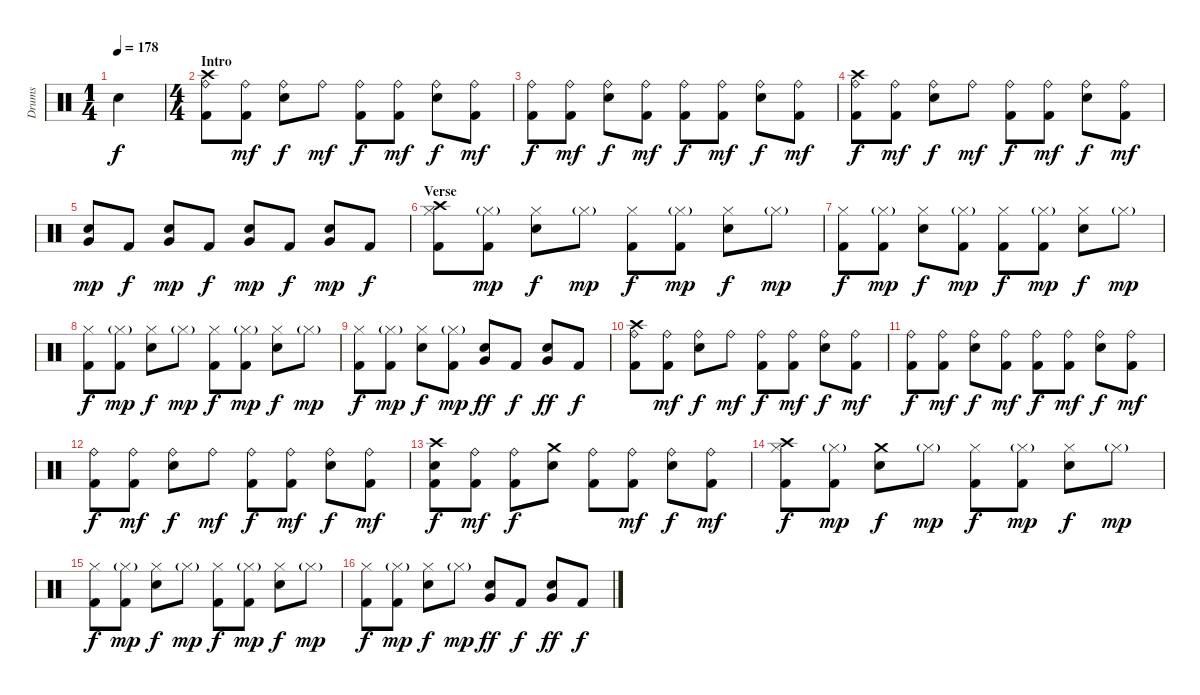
\track ("Drums" "Drums") {instrument percussion}
\staff {score}
\articulation defaults
\ts (1 4)
\tempo 178
\clef neutral
\ks c "Electric Snare (hit)".4{dy f}
|
\ts (4 4)
\section ("" "Intro")
("Crash high (hit)" "Ride (bell)" "Kick (hit) 2").8 ("Ride (bell)" "Kick (hit) 2").8{dy mf} ("Ride (bell)" "Electric Snare (hit)").8{dy f} "Ride (bell)".8{dy mf} ("Ride (bell)" "Kick (hit) 2").8{dy f} ("Ride (bell)" "Kick (hit) 2").8{dy mf} ("Ride (bell)" "Electric Snare (hit)").8{dy f} ("Ride (bell)" "Kick (hit) 2").8{dy mf} |
("Ride (bell)" "Kick (hit) 2").8{dy f} ("Ride (bell)" "Kick (hit) 2").8{dy mf} ("Ride (bell)" "Electric Snare (hit)").8{dy f} ("Ride (bell)" "Kick (hit) 2").8{dy mf} ("Ride (bell)" "Kick (hit) 2").8{dy f} ("Ride (bell)" "Kick (hit) 2").8{dy mf} ("Ride (bell)" "Electric Snare (hit)").8{dy f} ("Ride (bell)" "Kick (hit) 2").8{dy mf} |
("Crash high (hit)" "Ride (bell)" "Kick (hit) 2").8{dy f} ("Ride (bell)" "Kick (hit) 2").8{dy mf} ("Ride (bell)" "Electric Snare (hit)").8{dy f} "Ride (bell)".8{dy mf} ("Ride (bell)" "Kick (hit) 2").8{dy f} ("Ride (bell)" "Kick (hit) 2").8{dy mf} ("Ride (bell)" "Electric Snare (hit)").8{dy f} ("Ride (bell)" "Kick (hit) 2").8{dy mf} |
("Very Low Tom (hit)" "Electric Snare (hit)").8{dy mp} "Kick (hit) 2".8{dy f} ("Very Low Tom (hit)" "Electric Snare (hit)").8{dy mp} "Kick (hit) 2".8{dy f} ("Very Low Tom (hit)" "Electric Snare (hit)").8{dy mp} "Kick (hit) 2".8{dy f} ("Very Low Tom (hit)" "Electric Snare (hit)").8{dy mp} "Kick (hit) 2".8{dy f} |
\section ("" "Verse")
("Crash high (hit)" "Hi-Hat (closed)" "Kick (hit) 2").8 ("Hi-Hat (closed)"{g} "Kick (hit) 2").8{dy mp} ("Hi-Hat (closed)" "Electric Snare (hit)").8{dy f} "Hi-Hat (closed)"{g}.8{dy mp} ("Hi-Hat (closed)" "Kick (hit) 2").8{dy f} ("Hi-Hat (closed)"{g} "Kick (hit) 2").8{dy mp} ("Hi-Hat (closed)" "Electric Snare (hit)").8{dy f} "Hi-Hat (closed)"{g}.8{dy mp} |
("Hi-Hat (closed)" "Kick (hit) 2").8{dy f} ("Hi-Hat (closed)"{g} "Kick (hit) 2").8{dy mp} ("Hi-Hat (closed)" "Electric Snare (hit)").8{dy f} ("Hi-Hat (closed)"{g} "Kick (hit) 2").8{dy mp} ("Hi-Hat (closed)" "Kick (hit) 2").8{dy f} ("Hi-Hat (closed)"{g} "Kick (hit) 2").8{dy mp} ("Hi-Hat (closed)" "Electric Snare (hit)").8{dy f} "Hi-Hat (closed)"{g}.8{dy mp} |
("Hi-Hat (closed)" "Kick (hit) 2").8{dy f} ("Hi-Hat (closed)"{g} "Kick (hit) 2").8{dy mp} ("Hi-Hat (closed)" "Electric Snare (hit)").8{dy f} "Hi-Hat (closed)"{g}.8{dy mp} ("Hi-Hat (closed)" "Kick (hit) 2").8{dy f} ("Hi-Hat (closed)"{g} "Kick (hit) 2").8{dy mp} ("Hi-Hat (closed)" "Electric Snare (hit)").8{dy f} "Hi-Hat (closed)"{g}.8{dy mp} |
("Hi-Hat (closed)" "Kick (hit) 2").8{dy f} ("Hi-Hat (closed)"{g} "Kick (hit) 2").8{dy mp} ("Hi-Hat (closed)" "Electric Snare (hit)").8{dy f} ("Hi-Hat (closed)"{g} "Kick (hit) 2").8{dy mp} ("Very Low Tom (hit)" "Electric Snare (hit)").8{dy ff} "Kick (hit) 2".8{dy f} ("Very Low Tom (hit)" "Electric Snare (hit)").8{dy ff} "Kick (hit) 2".8{dy f} |
("Crash high (hit)" "Ride (bell)" "Kick (hit) 2").8 ("Ride (bell)" "Kick (hit) 2").8{dy mf} ("Ride (bell)" "Electric Snare (hit)").8{dy f} "Ride (bell)".8{dy mf} ("Ride (bell)" "Kick (hit) 2").8{dy f} ("Ride (bell)" "Kick (hit) 2").8{dy mf} ("Ride (bell)" "Electric Snare (hit)").8{dy f} ("Ride (bell)" "Kick (hit) 2").8{dy mf} |
("Ride (bell)" "Kick (hit) 2").8{dy f} ("Ride (bell)" "Kick (hit) 2").8{dy mf} ("Ride (bell)" "Electric Snare (hit)").8{dy f} ("Ride (bell)" "Kick (hit) 2").8{dy mf} ("Ride (bell)" "Kick (hit) 2").8{dy f} ("Ride (bell)" "Kick (hit) 2").8{dy mf} ("Ride (bell)" "Electric Snare (hit)").8{dy f} ("Ride (bell)" "Kick (hit) 2").8{dy mf} |
("Ride (bell)" "Kick (hit) 2").8{dy f} ("Ride (bell)" "Kick (hit) 2").8{dy mf} ("Ride (bell)" "Electric Snare (hit)").8{dy f} "Ride (bell)".8{dy mf} ("Ride (bell)" "Kick (hit) 2").8{dy f} ("Ride (bell)" "Kick (hit) 2").8{dy mf} ("Ride (bell)" "Electric Snare (hit)").8{dy f} ("Ride (bell)" "Kick (hit) 2").8{dy mf} |
("Crash high (hit)" "Electric Snare (hit)" "Kick (hit) 2").8{dy f} ("Ride (bell)" "Kick (hit) 2").8{dy mf} ("Ride (bell)" "Kick (hit) 2").8{dy f} ("Crash medium (hit)" "Electric Snare (hit)").8 ("Ride (bell)" "Kick (hit) 2").8 ("Ride (bell)" "Kick (hit) 2").8{dy mf} ("Ride (bell)" "Electric Snare (hit)").8{dy f} ("Ride (bell)" "Kick (hit) 2").8{dy mf} |
("Crash high (hit)" "Hi-Hat (closed)" "Kick (hit) 2").8{dy f} ("Hi-Hat (closed)"{g} "Kick (hit) 2").8{dy mp} ("Crash medium (hit)" "Electric Snare (hit)").8{dy f} "Hi-Hat (closed)"{g}.8{dy mp} ("Hi-Hat (closed)" "Kick (hit) 2").8{dy f} ("Hi-Hat (closed)"{g} "Kick (hit) 2").8{dy mp} ("Hi-Hat (closed)" "Electric Snare (hit)").8{dy f} "Hi-Hat (closed)"{g}.8{dy mp} |
("Hi-Hat (closed)" "Kick (hit) 2").8{dy f} ("Hi-Hat (closed)"{g} "Kick (hit) 2").8{dy mp} ("Hi-Hat (closed)" "Electric Snare (hit)").8{dy f} "Hi-Hat (closed)"{g}.8{dy mp} ("Hi-Hat (closed)" "Kick (hit) 2").8{dy f} ("Hi-Hat (closed)"{g} "Kick (hit) 2").8{dy mp} ("Hi-Hat (closed)" "Electric Snare (hit)").8{dy f} "Hi-Hat (closed)"{g}.8{dy mp} |
("Hi-Hat (closed)" "Kick (hit) 2").8{dy f} ("Hi-Hat (closed)"{g} "Kick (hit) 2").8{dy mp} ("Hi-Hat (closed)" "Electric Snare (hit)").8{dy f} "Hi-Hat (closed)"{g}.8{dy mp} ("Very Low Tom (hit)" "Electric Snare (hit)").8{dy ff} "Kick (hit) 2".8{dy f} ("Very Low Tom (hit)" "Electric Snare (hit)").8{dy ff} "Kick (hit) 2".8{dy f}
